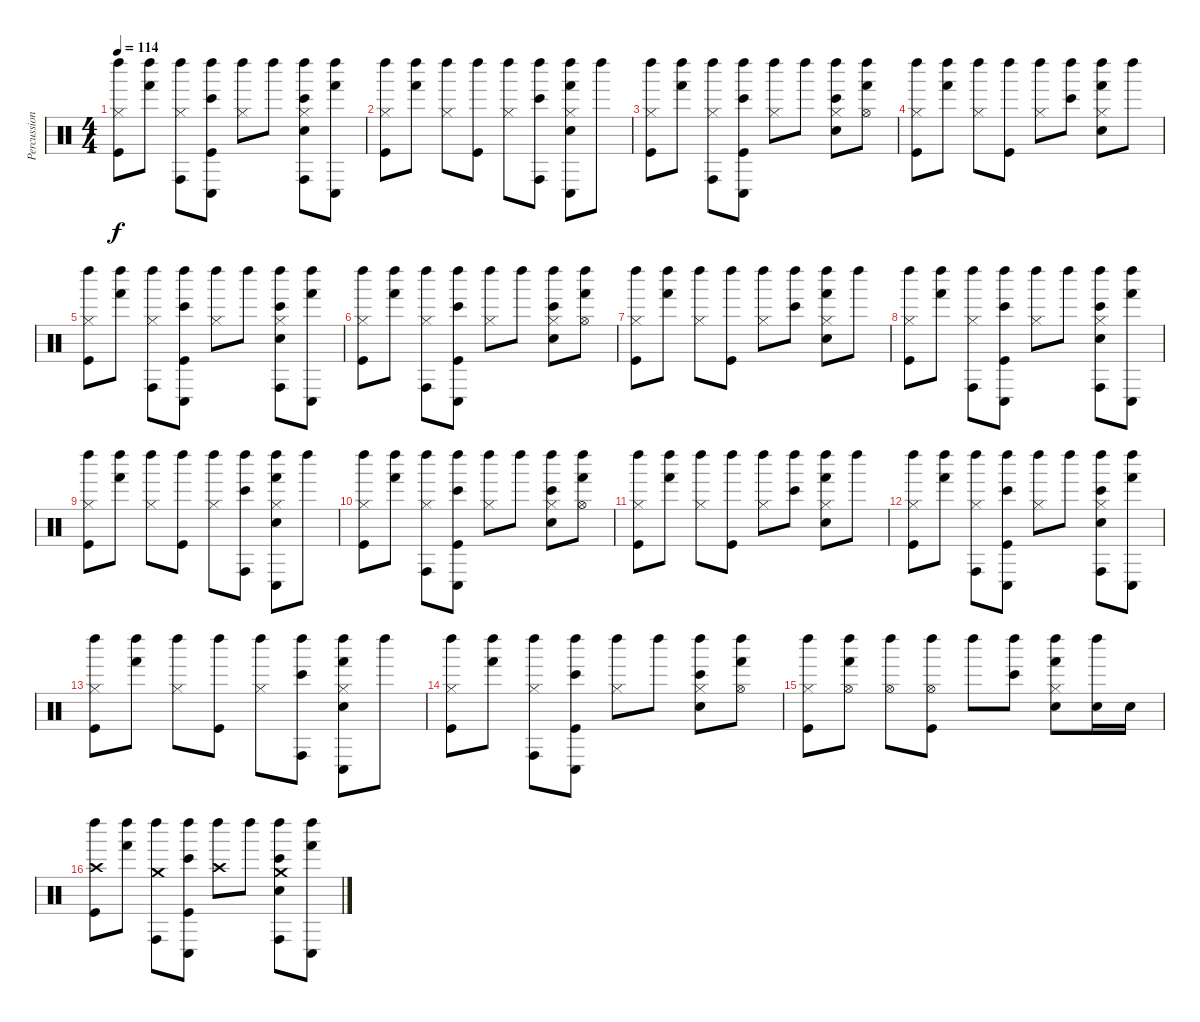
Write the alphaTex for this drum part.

\track ("Percussion" "Percussion") {instrument percussion}
\staff {score}
\articulation defaults
\ts (4 4)
\tempo 114
\clef neutral
\ks c
("Left Maraca (hit)" "Hi-Hat (closed)" "Kick (hit)").8{dy f} ("Left Maraca (hit)" "Hand (hit)").8 ("Left Maraca (hit)" "Conga high (hit)" "Hi-Hat (closed)").8 ("Left Maraca (hit)" "Conga low (hit)" "Bongo High (hit)" "Kick (hit)").8 ("Left Maraca (hit)" "Hi-Hat (closed)").8 "Left Maraca (hit)".8 ("Left Maraca (hit)" "Conga high (hit)" "Bongo High (hit)" "Hi-Hat (closed)" "Snare (hit) 2").8 ("Left Maraca (hit)" "Conga low (hit)" "Hand (hit)").8 |
("Left Maraca (hit)" "Hi-Hat (closed)" "Kick (hit)").8 ("Left Maraca (hit)" "Hand (hit)").8 ("Left Maraca (hit)" "Hi-Hat (closed)").8 ("Left Maraca (hit)" "Kick (hit)").8 ("Left Maraca (hit)" "Hi-Hat (closed)").8 ("Left Maraca (hit)" "Conga high (hit)" "Bongo High (hit)").8 ("Left Maraca (hit)" "Conga low (hit)" "Hand (hit)" "Hi-Hat (closed)" "Snare (hit) 2").8 "Left Maraca (hit)".8 |
("Left Maraca (hit)" "Hi-Hat (closed)" "Kick (hit)").8 ("Left Maraca (hit)" "Hand (hit)").8 ("Left Maraca (hit)" "Conga high (hit)" "Hi-Hat (closed)").8 ("Left Maraca (hit)" "Conga low (hit)" "Bongo High (hit)" "Kick (hit)").8 ("Left Maraca (hit)" "Hi-Hat (closed)").8 "Left Maraca (hit)".8 ("Left Maraca (hit)" "Bongo High (hit)" "Hi-Hat (closed)" "Snare (hit) 2").8 ("Left Maraca (hit)" "Hand (hit)" "Hi-Hat (open)").8 |
("Left Maraca (hit)" "Hi-Hat (closed)" "Kick (hit)").8 ("Left Maraca (hit)" "Hand (hit)").8 ("Left Maraca (hit)" "Hi-Hat (closed)").8 ("Left Maraca (hit)" "Kick (hit)").8 ("Left Maraca (hit)" "Hi-Hat (closed)").8 ("Left Maraca (hit)" "Bongo High (hit)").8 ("Left Maraca (hit)" "Hand (hit)" "Hi-Hat (closed)" "Snare (hit) 2").8 "Left Maraca (hit)".8 |
("Left Maraca (hit)" "Hi-Hat (closed)" "Kick (hit)").8 ("Left Maraca (hit)" "Hand (hit)").8 ("Left Maraca (hit)" "Conga high (hit)" "Hi-Hat (closed)").8 ("Left Maraca (hit)" "Conga low (hit)" "Bongo High (hit)" "Kick (hit)").8 ("Left Maraca (hit)" "Hi-Hat (closed)").8 "Left Maraca (hit)".8 ("Left Maraca (hit)" "Conga high (hit)" "Bongo High (hit)" "Hi-Hat (closed)" "Snare (hit) 2").8 ("Left Maraca (hit)" "Conga low (hit)" "Hand (hit)").8 |
("Left Maraca (hit)" "Hi-Hat (closed)" "Kick (hit)").8 ("Left Maraca (hit)" "Hand (hit)").8 ("Left Maraca (hit)" "Conga high (hit)" "Hi-Hat (closed)").8 ("Left Maraca (hit)" "Conga low (hit)" "Bongo High (hit)" "Kick (hit)").8 ("Left Maraca (hit)" "Hi-Hat (closed)").8 "Left Maraca (hit)".8 ("Left Maraca (hit)" "Bongo High (hit)" "Hi-Hat (closed)" "Snare (hit) 2").8 ("Left Maraca (hit)" "Hand (hit)" "Hi-Hat (open)").8 |
("Left Maraca (hit)" "Hi-Hat (closed)" "Kick (hit)").8 ("Left Maraca (hit)" "Hand (hit)").8 ("Left Maraca (hit)" "Hi-Hat (closed)").8 ("Left Maraca (hit)" "Kick (hit)").8 ("Left Maraca (hit)" "Hi-Hat (closed)").8 ("Left Maraca (hit)" "Bongo High (hit)").8 ("Left Maraca (hit)" "Hand (hit)" "Hi-Hat (closed)" "Snare (hit) 2").8 "Left Maraca (hit)".8 |
("Left Maraca (hit)" "Hi-Hat (closed)" "Kick (hit)").8 ("Left Maraca (hit)" "Hand (hit)").8 ("Left Maraca (hit)" "Conga high (hit)" "Hi-Hat (closed)").8 ("Left Maraca (hit)" "Conga low (hit)" "Bongo High (hit)" "Kick (hit)").8 ("Left Maraca (hit)" "Hi-Hat (closed)").8 "Left Maraca (hit)".8 ("Left Maraca (hit)" "Conga high (hit)" "Bongo High (hit)" "Hi-Hat (closed)" "Snare (hit) 2").8 ("Left Maraca (hit)" "Conga low (hit)" "Hand (hit)").8 |
("Left Maraca (hit)" "Hi-Hat (closed)" "Kick (hit)").8 ("Left Maraca (hit)" "Hand (hit)").8 ("Left Maraca (hit)" "Hi-Hat (closed)").8 ("Left Maraca (hit)" "Kick (hit)").8 ("Left Maraca (hit)" "Hi-Hat (closed)").8 ("Left Maraca (hit)" "Conga high (hit)" "Bongo High (hit)").8 ("Left Maraca (hit)" "Conga low (hit)" "Hand (hit)" "Hi-Hat (closed)" "Snare (hit) 2").8 "Left Maraca (hit)".8 |
("Left Maraca (hit)" "Hi-Hat (closed)" "Kick (hit)").8 ("Left Maraca (hit)" "Hand (hit)").8 ("Left Maraca (hit)" "Conga high (hit)" "Hi-Hat (closed)").8 ("Left Maraca (hit)" "Conga low (hit)" "Bongo High (hit)" "Kick (hit)").8 ("Left Maraca (hit)" "Hi-Hat (closed)").8 "Left Maraca (hit)".8 ("Left Maraca (hit)" "Bongo High (hit)" "Hi-Hat (closed)" "Snare (hit) 2").8 ("Left Maraca (hit)" "Hand (hit)" "Hi-Hat (open)").8 |
("Left Maraca (hit)" "Hi-Hat (closed)" "Kick (hit)").8 ("Left Maraca (hit)" "Hand (hit)").8 ("Left Maraca (hit)" "Hi-Hat (closed)").8 ("Left Maraca (hit)" "Kick (hit)").8 ("Left Maraca (hit)" "Hi-Hat (closed)").8 ("Left Maraca (hit)" "Bongo High (hit)").8 ("Left Maraca (hit)" "Hand (hit)" "Hi-Hat (closed)" "Snare (hit) 2").8 "Left Maraca (hit)".8 |
("Left Maraca (hit)" "Hi-Hat (closed)" "Kick (hit)").8 ("Left Maraca (hit)" "Hand (hit)").8 ("Left Maraca (hit)" "Conga high (hit)" "Hi-Hat (closed)").8 ("Left Maraca (hit)" "Conga low (hit)" "Bongo High (hit)" "Kick (hit)").8 ("Left Maraca (hit)" "Hi-Hat (closed)").8 "Left Maraca (hit)".8 ("Left Maraca (hit)" "Conga high (hit)" "Bongo High (hit)" "Hi-Hat (closed)" "Snare (hit) 2").8 ("Left Maraca (hit)" "Conga low (hit)" "Hand (hit)").8 |
("Left Maraca (hit)" "Hi-Hat (closed)" "Kick (hit)").8 ("Left Maraca (hit)" "Hand (hit)").8 ("Left Maraca (hit)" "Hi-Hat (closed)").8 ("Left Maraca (hit)" "Kick (hit)").8 ("Left Maraca (hit)" "Hi-Hat (closed)").8 ("Left Maraca (hit)" "Conga high (hit)" "Bongo High (hit)").8 ("Left Maraca (hit)" "Conga low (hit)" "Hand (hit)" "Hi-Hat (closed)" "Snare (hit) 2").8 "Left Maraca (hit)".8 |
("Left Maraca (hit)" "Hi-Hat (closed)" "Kick (hit)").8 ("Left Maraca (hit)" "Hand (hit)").8 ("Left Maraca (hit)" "Conga high (hit)" "Hi-Hat (closed)").8 ("Left Maraca (hit)" "Conga low (hit)" "Bongo High (hit)" "Kick (hit)").8 ("Left Maraca (hit)" "Hi-Hat (closed)").8 "Left Maraca (hit)".8 ("Left Maraca (hit)" "Bongo High (hit)" "Hi-Hat (closed)" "Snare (hit) 2").8 ("Left Maraca (hit)" "Hand (hit)" "Hi-Hat (open)").8 |
("Left Maraca (hit)" "Hi-Hat (closed)" "Kick (hit)").8 ("Left Maraca (hit)" "Hand (hit)" "Hi-Hat (open)").8 ("Left Maraca (hit)" "Hi-Hat (open)").8 ("Left Maraca (hit)" "Hi-Hat (open)" "Kick (hit)").8 "Left Maraca (hit)".8 ("Left Maraca (hit)" "Bongo High (hit)").8 ("Left Maraca (hit)" "Hand (hit)" "Hi-Hat (closed)" "Snare (hit) 2").8 ("Left Maraca (hit)" "Snare (hit) 2").16 "Snare (hit) 2".16 |
("Left Maraca (hit)" "Crash high (hit)" "Kick (hit)").8 ("Left Maraca (hit)" "Hand (hit)").8 ("Left Maraca (hit)" "Conga high (hit)" "Crash medium (hit)").8 ("Left Maraca (hit)" "Conga low (hit)" "Bongo High (hit)" "Kick (hit)").8 ("Left Maraca (hit)" "Crash high (hit)").8 "Left Maraca (hit)".8 ("Left Maraca (hit)" "Conga high (hit)" "Bongo High (hit)" "Crash medium (hit)" "Snare (hit) 2").8 ("Left Maraca (hit)" "Conga low (hit)" "Hand (hit)").8
